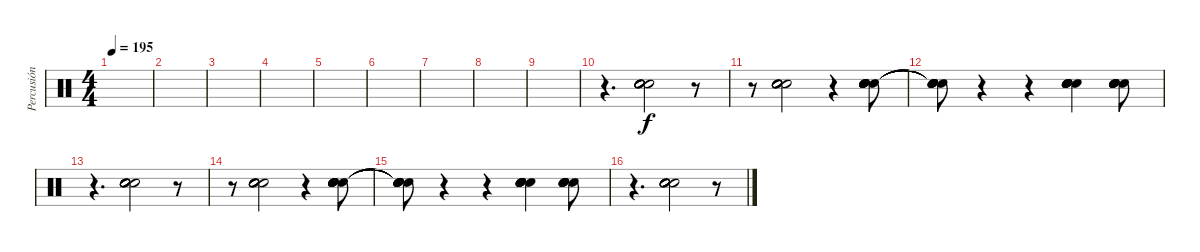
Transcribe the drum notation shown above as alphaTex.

\track ("Percusión" "Percusión") {instrument percussion}
\staff {score}
\articulation defaults
\ts (4 4)
\tempo 195
\clef neutral
\ks c
|
|
|
|
|
|
|
|
|
r.4{d} ("Hand Clap (hit)" "Hand Clap (hit)" "Hand Clap (hit)" "Hand Clap (hit)" "Hand Clap (hit)" "Hand Clap (hit)").2{bd 120} r.8 |
r.8 ("Hand Clap (hit)" "Hand Clap (hit)" "Hand Clap (hit)" "Hand Clap (hit)" "Hand Clap (hit)" "Hand Clap (hit)").2{bd 120} r.4 ("Hand Clap (hit)" "Hand Clap (hit)" "Hand Clap (hit)" "Hand Clap (hit)" "Hand Clap (hit)" "Hand Clap (hit)").8{bd 120} |
("Snare (hit)"{t} "Snare (hit)"{t} "Snare (hit)"{t} "Snare (hit)"{t} "Snare (hit)"{t} "Snare (hit)"{t}).8 r.4 r.4 ("Hand Clap (hit)" "Hand Clap (hit)" "Hand Clap (hit)" "Hand Clap (hit)" "Hand Clap (hit)" "Hand Clap (hit)").4{bd 120} ("Hand Clap (hit)" "Hand Clap (hit)" "Hand Clap (hit)" "Hand Clap (hit)" "Hand Clap (hit)" "Hand Clap (hit)").8{bd 120} |
r.4{d} ("Hand Clap (hit)" "Hand Clap (hit)" "Hand Clap (hit)" "Hand Clap (hit)" "Hand Clap (hit)" "Hand Clap (hit)").2{bd 120} r.8 |
r.8 ("Hand Clap (hit)" "Hand Clap (hit)" "Hand Clap (hit)" "Hand Clap (hit)" "Hand Clap (hit)" "Hand Clap (hit)").2{bd 120} r.4 ("Hand Clap (hit)" "Hand Clap (hit)" "Hand Clap (hit)" "Hand Clap (hit)" "Hand Clap (hit)" "Hand Clap (hit)").8{bd 120} |
("Snare (hit)"{t} "Snare (hit)"{t} "Snare (hit)"{t} "Snare (hit)"{t} "Snare (hit)"{t} "Snare (hit)"{t}).8 r.4 r.4 ("Hand Clap (hit)" "Hand Clap (hit)" "Hand Clap (hit)" "Hand Clap (hit)" "Hand Clap (hit)" "Hand Clap (hit)").4{bd 120} ("Hand Clap (hit)" "Hand Clap (hit)" "Hand Clap (hit)" "Hand Clap (hit)" "Hand Clap (hit)" "Hand Clap (hit)").8{bd 120} |
r.4{d} ("Hand Clap (hit)" "Hand Clap (hit)" "Hand Clap (hit)" "Hand Clap (hit)" "Hand Clap (hit)" "Hand Clap (hit)").2{bd 120} r.8
